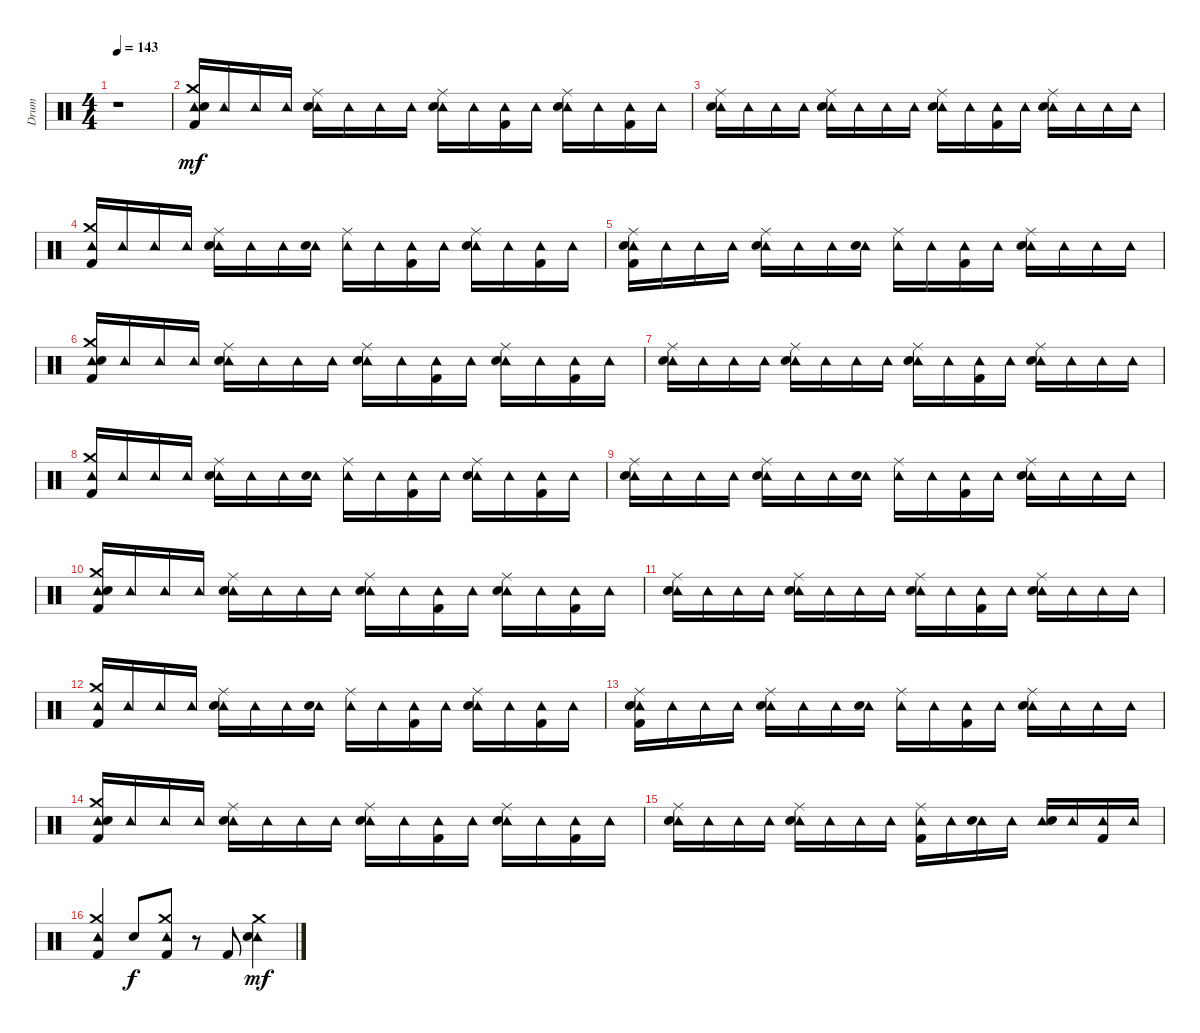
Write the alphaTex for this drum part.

\track ("Drum" "Drum") {instrument percussion}
\staff {score}
\articulation defaults
\ts (4 4)
\tempo 143
\clef neutral
\ks c
r.1{dy mf} |
("Tambourine (hit)" "Crash medium (hit)" "Snare (hit) 2" "Kick (hit) 2").16 "Tambourine (hit)".16 "Tambourine (hit)".16 "Tambourine (hit)".16 ("Tambourine (hit)" "Ride (middle)" "Snare (hit) 2").16 "Tambourine (hit)".16 "Tambourine (hit)".16 "Tambourine (hit)".16 ("Tambourine (hit)" "Ride (middle)" "Snare (hit) 2").16 "Tambourine (hit)".16 ("Tambourine (hit)" "Kick (hit) 2").16 "Tambourine (hit)".16 ("Tambourine (hit)" "Ride (middle)" "Snare (hit) 2").16 "Tambourine (hit)".16 ("Tambourine (hit)" "Kick (hit) 2").16 "Tambourine (hit)".16 |
("Tambourine (hit)" "Ride (middle)" "Snare (hit) 2").16 "Tambourine (hit)".16 "Tambourine (hit)".16 "Tambourine (hit)".16 ("Tambourine (hit)" "Ride (middle)" "Snare (hit) 2").16 "Tambourine (hit)".16 "Tambourine (hit)".16 "Tambourine (hit)".16 ("Tambourine (hit)" "Ride (middle)" "Snare (hit) 2").16 "Tambourine (hit)".16 ("Tambourine (hit)" "Kick (hit) 2").16 "Tambourine (hit)".16 ("Tambourine (hit)" "Ride (middle)" "Snare (hit) 2").16 "Tambourine (hit)".16 "Tambourine (hit)".16 "Tambourine (hit)".16 |
("Tambourine (hit)" "Crash medium (hit)" "Kick (hit) 2").16 "Tambourine (hit)".16 "Tambourine (hit)".16 "Tambourine (hit)".16 ("Tambourine (hit)" "Ride (middle)" "Snare (hit) 2").16 "Tambourine (hit)".16 "Tambourine (hit)".16 ("Tambourine (hit)" "Snare (hit) 2").16 ("Tambourine (hit)" "Ride (middle)").16 "Tambourine (hit)".16 ("Tambourine (hit)" "Kick (hit) 2").16 "Tambourine (hit)".16 ("Tambourine (hit)" "Ride (middle)" "Snare (hit) 2").16 "Tambourine (hit)".16 ("Tambourine (hit)" "Kick (hit) 2").16 "Tambourine (hit)".16 |
("Tambourine (hit)" "Ride (middle)" "Snare (hit) 2" "Kick (hit) 2").16 "Tambourine (hit)".16 "Tambourine (hit)".16 "Tambourine (hit)".16 ("Tambourine (hit)" "Ride (middle)" "Snare (hit) 2").16 "Tambourine (hit)".16 "Tambourine (hit)".16 ("Tambourine (hit)" "Snare (hit) 2").16 ("Tambourine (hit)" "Ride (middle)").16 "Tambourine (hit)".16 ("Tambourine (hit)" "Kick (hit) 2").16 "Tambourine (hit)".16 ("Tambourine (hit)" "Ride (middle)" "Snare (hit) 2").16 "Tambourine (hit)".16 "Tambourine (hit)".16 "Tambourine (hit)".16 |
("Tambourine (hit)" "Crash medium (hit)" "Snare (hit) 2" "Kick (hit) 2").16 "Tambourine (hit)".16 "Tambourine (hit)".16 "Tambourine (hit)".16 ("Tambourine (hit)" "Ride (middle)" "Snare (hit) 2").16 "Tambourine (hit)".16 "Tambourine (hit)".16 "Tambourine (hit)".16 ("Tambourine (hit)" "Ride (middle)" "Snare (hit) 2").16 "Tambourine (hit)".16 ("Tambourine (hit)" "Kick (hit) 2").16 "Tambourine (hit)".16 ("Tambourine (hit)" "Ride (middle)" "Snare (hit) 2").16 "Tambourine (hit)".16 ("Tambourine (hit)" "Kick (hit) 2").16 "Tambourine (hit)".16 |
("Tambourine (hit)" "Ride (middle)" "Snare (hit) 2").16 "Tambourine (hit)".16 "Tambourine (hit)".16 "Tambourine (hit)".16 ("Tambourine (hit)" "Ride (middle)" "Snare (hit) 2").16 "Tambourine (hit)".16 "Tambourine (hit)".16 "Tambourine (hit)".16 ("Tambourine (hit)" "Ride (middle)" "Snare (hit) 2").16 "Tambourine (hit)".16 ("Tambourine (hit)" "Kick (hit) 2").16 "Tambourine (hit)".16 ("Tambourine (hit)" "Snare (hit) 2" "Ride (middle)").16 "Tambourine (hit)".16 "Tambourine (hit)".16 "Tambourine (hit)".16 |
("Tambourine (hit)" "Crash medium (hit)" "Kick (hit) 2").16 "Tambourine (hit)".16 "Tambourine (hit)".16 "Tambourine (hit)".16 ("Tambourine (hit)" "Ride (middle)" "Snare (hit) 2").16 "Tambourine (hit)".16 "Tambourine (hit)".16 ("Tambourine (hit)" "Snare (hit) 2").16 ("Tambourine (hit)" "Ride (middle)").16 "Tambourine (hit)".16 ("Tambourine (hit)" "Kick (hit) 2").16 "Tambourine (hit)".16 ("Tambourine (hit)" "Ride (middle)" "Snare (hit) 2").16 "Tambourine (hit)".16 ("Tambourine (hit)" "Kick (hit) 2").16 "Tambourine (hit)".16 |
("Tambourine (hit)" "Ride (middle)" "Snare (hit) 2").16 "Tambourine (hit)".16 "Tambourine (hit)".16 "Tambourine (hit)".16 ("Tambourine (hit)" "Ride (middle)" "Snare (hit) 2").16 "Tambourine (hit)".16 "Tambourine (hit)".16 ("Tambourine (hit)" "Snare (hit) 2").16 ("Tambourine (hit)" "Ride (middle)").16 "Tambourine (hit)".16 ("Tambourine (hit)" "Kick (hit) 2").16 "Tambourine (hit)".16 ("Tambourine (hit)" "Ride (middle)" "Snare (hit) 2").16 "Tambourine (hit)".16 "Tambourine (hit)".16 "Tambourine (hit)".16 |
("Tambourine (hit)" "Crash medium (hit)" "Snare (hit) 2" "Kick (hit) 2").16 "Tambourine (hit)".16 "Tambourine (hit)".16 "Tambourine (hit)".16 ("Tambourine (hit)" "Ride (middle)" "Snare (hit) 2").16 "Tambourine (hit)".16 "Tambourine (hit)".16 "Tambourine (hit)".16 ("Tambourine (hit)" "Ride (middle)" "Snare (hit) 2").16 "Tambourine (hit)".16 ("Tambourine (hit)" "Kick (hit) 2").16 "Tambourine (hit)".16 ("Tambourine (hit)" "Ride (middle)" "Snare (hit) 2").16 "Tambourine (hit)".16 ("Tambourine (hit)" "Kick (hit) 2").16 "Tambourine (hit)".16 |
("Tambourine (hit)" "Ride (middle)" "Snare (hit) 2").16 "Tambourine (hit)".16 "Tambourine (hit)".16 "Tambourine (hit)".16 ("Tambourine (hit)" "Ride (middle)" "Snare (hit) 2").16 "Tambourine (hit)".16 "Tambourine (hit)".16 "Tambourine (hit)".16 ("Tambourine (hit)" "Ride (middle)" "Snare (hit) 2").16 "Tambourine (hit)".16 ("Tambourine (hit)" "Kick (hit) 2").16 "Tambourine (hit)".16 ("Tambourine (hit)" "Ride (middle)" "Snare (hit) 2").16 "Tambourine (hit)".16 "Tambourine (hit)".16 "Tambourine (hit)".16 |
("Tambourine (hit)" "Crash medium (hit)" "Kick (hit) 2").16 "Tambourine (hit)".16 "Tambourine (hit)".16 "Tambourine (hit)".16 ("Tambourine (hit)" "Ride (middle)" "Snare (hit) 2").16 "Tambourine (hit)".16 "Tambourine (hit)".16 ("Tambourine (hit)" "Snare (hit) 2").16 ("Tambourine (hit)" "Ride (middle)").16 "Tambourine (hit)".16 ("Tambourine (hit)" "Kick (hit) 2").16 "Tambourine (hit)".16 ("Tambourine (hit)" "Ride (middle)" "Snare (hit) 2").16 "Tambourine (hit)".16 ("Tambourine (hit)" "Kick (hit) 2").16 "Tambourine (hit)".16 |
("Tambourine (hit)" "Ride (middle)" "Snare (hit) 2" "Kick (hit) 2").16 "Tambourine (hit)".16 "Tambourine (hit)".16 "Tambourine (hit)".16 ("Tambourine (hit)" "Ride (middle)" "Snare (hit) 2").16 "Tambourine (hit)".16 "Tambourine (hit)".16 ("Tambourine (hit)" "Snare (hit) 2").16 ("Tambourine (hit)" "Ride (middle)").16 "Tambourine (hit)".16 ("Tambourine (hit)" "Kick (hit) 2").16 "Tambourine (hit)".16 ("Tambourine (hit)" "Ride (middle)" "Snare (hit) 2").16 "Tambourine (hit)".16 "Tambourine (hit)".16 "Tambourine (hit)".16 |
("Tambourine (hit)" "Crash medium (hit)" "Snare (hit) 2" "Kick (hit) 2").16 "Tambourine (hit)".16 "Tambourine (hit)".16 "Tambourine (hit)".16 ("Tambourine (hit)" "Ride (middle)" "Snare (hit) 2").16 "Tambourine (hit)".16 "Tambourine (hit)".16 "Tambourine (hit)".16 ("Tambourine (hit)" "Ride (middle)" "Snare (hit) 2").16 "Tambourine (hit)".16 ("Tambourine (hit)" "Kick (hit) 2").16 "Tambourine (hit)".16 ("Tambourine (hit)" "Ride (middle)" "Snare (hit) 2").16 "Tambourine (hit)".16 ("Tambourine (hit)" "Kick (hit) 2").16 "Tambourine (hit)".16 |
("Tambourine (hit)" "Ride (middle)" "Snare (hit) 2").16 "Tambourine (hit)".16 "Tambourine (hit)".16 "Tambourine (hit)".16 ("Tambourine (hit)" "Ride (middle)" "Snare (hit) 2").16 "Tambourine (hit)".16 "Tambourine (hit)".16 "Tambourine (hit)".16 ("Tambourine (hit)" "Ride (middle)" "Kick (hit) 2").16 "Tambourine (hit)".16 ("Tambourine (hit)" "Snare (hit) 2").16 "Tambourine (hit)".16 ("Tambourine (hit)" "Snare (hit) 2").16 "Tambourine (hit)".16 ("Tambourine (hit)" "Kick (hit) 2").16 "Tambourine (hit)".16 |
("Tambourine (hit)" "Crash medium (hit)" "Kick (hit) 2").4 "Snare (hit) 2".8{dy f} ("Tambourine (hit)" "Crash medium (hit)" "Kick (hit) 2").8 r.8 "Kick (hit) 2".8 ("Tambourine (hit)" "Crash medium (hit)" "Snare (hit) 2").4{dy mf}
